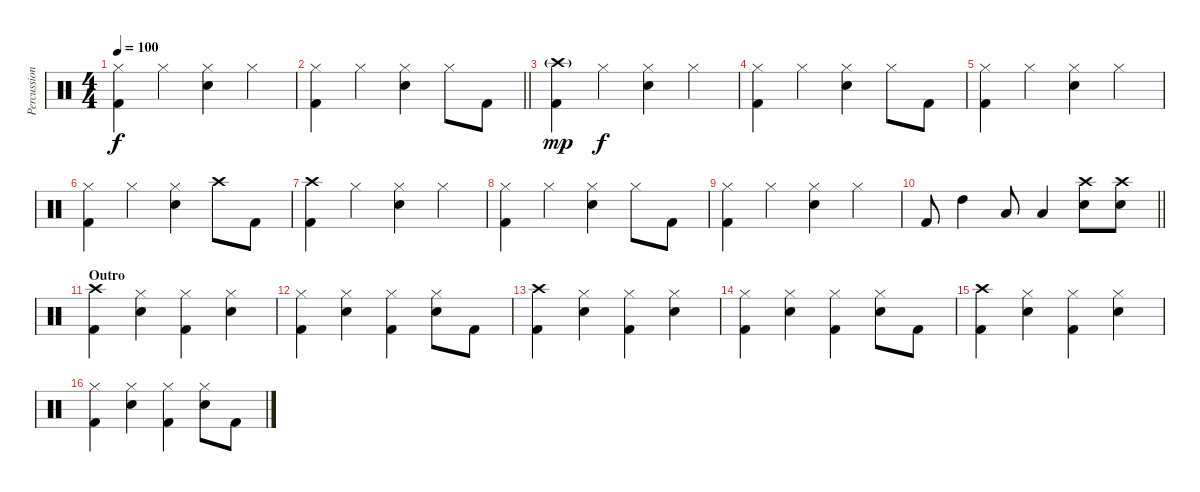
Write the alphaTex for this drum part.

\track ("Percussion" "Percussion") {instrument percussion}
\staff {score}
\articulation defaults
\ts (4 4)
\tempo 100
\clef neutral
\ks c
("Hi-Hat (closed)" "Kick (hit) 2").4{dy f} "Hi-Hat (closed)".4 ("Hi-Hat (closed)" "Snare (hit) 2").4 "Hi-Hat (closed)".4 |
\barLineRight lightlight
("Hi-Hat (closed)" "Kick (hit) 2").4 "Hi-Hat (closed)".4 ("Hi-Hat (closed)" "Snare (hit) 2").4 "Hi-Hat (closed)".8 "Kick (hit) 2".8 |
("Crash high (hit)"{g} "Kick (hit) 2").4{dy mp} "Hi-Hat (closed)".4{dy f} ("Hi-Hat (closed)" "Snare (hit) 2").4 "Hi-Hat (closed)".4 |
("Hi-Hat (closed)" "Kick (hit) 2").4 "Hi-Hat (closed)".4 ("Hi-Hat (closed)" "Snare (hit) 2").4 "Hi-Hat (closed)".8 "Kick (hit) 2".8 |
("Hi-Hat (closed)" "Kick (hit) 2").4 "Hi-Hat (closed)".4 ("Hi-Hat (closed)" "Snare (hit) 2").4 "Hi-Hat (closed)".4 |
("Hi-Hat (closed)" "Kick (hit) 2").4 "Hi-Hat (closed)".4 ("Hi-Hat (closed)" "Snare (hit) 2").4 "Crash high (hit)".8 "Kick (hit) 2".8 |
("Crash high (hit)" "Kick (hit) 2").4 "Hi-Hat (closed)".4 ("Hi-Hat (closed)" "Snare (hit) 2").4 "Hi-Hat (closed)".4 |
("Hi-Hat (closed)" "Kick (hit) 2").4 "Hi-Hat (closed)".4 ("Hi-Hat (closed)" "Snare (hit) 2").4 "Hi-Hat (closed)".8 "Kick (hit) 2".8 |
("Hi-Hat (closed)" "Kick (hit) 2").4 "Hi-Hat (closed)".4 ("Hi-Hat (closed)" "Snare (hit) 2").4 "Hi-Hat (closed)".4 |
\barLineRight lightlight "Kick (hit) 2".8 "High Tom (hit)".4 "Low Tom (hit)".8 "Low Floor Tom (hit)".4
("Snare (hit) 2" "Crash high (hit)").8 ("Snare (hit) 2" "Crash high (hit)").8 |
\section ("" "Outro")
("Crash high (hit)" "Kick (hit) 2").4 ("Hi-Hat (closed)" "Snare (hit) 2").4 ("Hi-Hat (closed)" "Kick (hit) 2").4 ("Hi-Hat (closed)" "Snare (hit) 2").4 |
("Hi-Hat (closed)" "Kick (hit) 2").4 ("Hi-Hat (closed)" "Snare (hit) 2").4 ("Hi-Hat (closed)" "Kick (hit) 2").4 ("Hi-Hat (closed)" "Snare (hit) 2").8 "Kick (hit) 2".8 |
("Crash high (hit)" "Kick (hit) 2").4 ("Hi-Hat (closed)" "Snare (hit) 2").4 ("Hi-Hat (closed)" "Kick (hit) 2").4 ("Hi-Hat (closed)" "Snare (hit) 2").4 |
("Hi-Hat (closed)" "Kick (hit) 2").4 ("Hi-Hat (closed)" "Snare (hit) 2").4 ("Hi-Hat (closed)" "Kick (hit) 2").4 ("Hi-Hat (closed)" "Snare (hit) 2").8 "Kick (hit) 2".8 |
("Crash high (hit)" "Kick (hit) 2").4 ("Hi-Hat (closed)" "Snare (hit) 2").4 ("Hi-Hat (closed)" "Kick (hit) 2").4 ("Hi-Hat (closed)" "Snare (hit) 2").4 |
("Hi-Hat (closed)" "Kick (hit) 2").4 ("Hi-Hat (closed)" "Snare (hit) 2").4 ("Hi-Hat (closed)" "Kick (hit) 2").4 ("Hi-Hat (closed)" "Snare (hit) 2").8 "Kick (hit) 2".8
